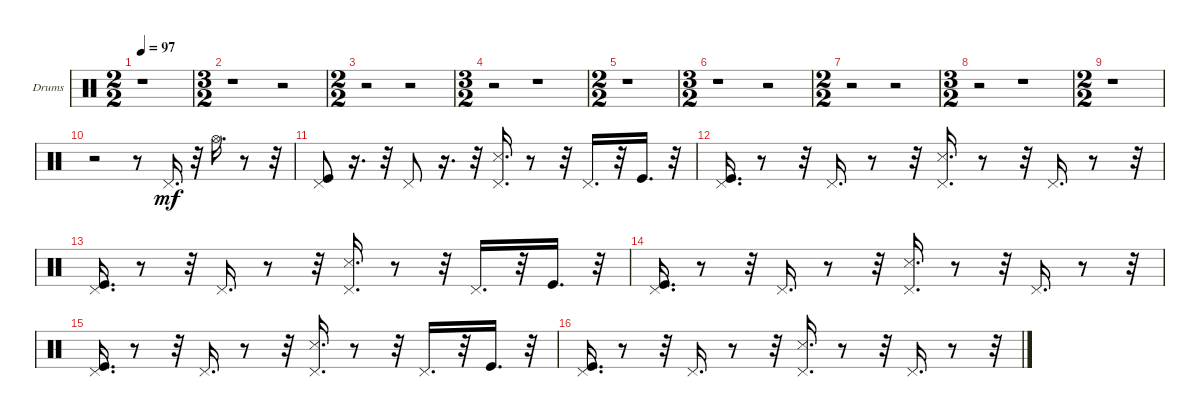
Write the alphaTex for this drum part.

\bracketExtendMode groupsimilarinstruments
\firstSystemTrackNameOrientation horizontal
\otherSystemsTrackNameOrientation horizontal
\track ("Percusion" "Drums") {instrument percussion}
\staff {score}
\articulation defaults
\ts (2 2)
\tempo 97
\clef neutral
\ks c
r.1{dy mf} |
\ts (3 2)
r.1 r.2 |
\ts (2 2)
r.2 r.2 |
\ts (3 2)
r.2 r.1 |
\ts (2 2)
r.1 |
\ts (3 2)
r.1 r.2 |
\ts (2 2)
r.2 r.2 |
\ts (3 2)
r.2 r.1 |
\ts (2 2)
r.1 |
r.2 r.8 "Pedal Hi-Hat (hit)".16{d} r.32 "Hi-Hat (open)".16{d} r.8 r.32 |
("Pedal Hi-Hat (hit)" "Kick (hit)").8 r.16{d} r.32 "Pedal Hi-Hat (hit)".8 r.16{d} r.32 ("Pedal Hi-Hat (hit)" "Snare (side stick) 3").16{d} r.8 r.32 "Pedal Hi-Hat (hit)".16{d} r.32 "Kick (hit)".16{d} r.32 |
("Pedal Hi-Hat (hit)" "Kick (hit)").16{d} r.8 r.32 "Pedal Hi-Hat (hit)".16{d} r.8 r.32 ("Pedal Hi-Hat (hit)" "Snare (side stick) 3").16{d} r.8 r.32 "Pedal Hi-Hat (hit)".16{d} r.8 r.32 |
("Pedal Hi-Hat (hit)" "Kick (hit)").16{d} r.8 r.32 "Pedal Hi-Hat (hit)".16{d} r.8 r.32 ("Pedal Hi-Hat (hit)" "Snare (side stick) 3").16{d} r.8 r.32 "Pedal Hi-Hat (hit)".16{d} r.32 "Kick (hit)".16{d} r.32 |
("Pedal Hi-Hat (hit)" "Kick (hit)").16{d} r.8 r.32 "Pedal Hi-Hat (hit)".16{d} r.8 r.32 ("Pedal Hi-Hat (hit)" "Snare (side stick) 3").16{d} r.8 r.32 "Pedal Hi-Hat (hit)".16{d} r.8 r.32 |
("Pedal Hi-Hat (hit)" "Kick (hit)").16{d} r.8 r.32 "Pedal Hi-Hat (hit)".16{d} r.8 r.32 ("Pedal Hi-Hat (hit)" "Snare (side stick) 3").16{d} r.8 r.32 "Pedal Hi-Hat (hit)".16{d} r.32 "Kick (hit)".16{d} r.32 |
("Pedal Hi-Hat (hit)" "Kick (hit)").16{d} r.8 r.32 "Pedal Hi-Hat (hit)".16{d} r.8 r.32 ("Pedal Hi-Hat (hit)" "Snare (side stick) 3").16{d} r.8 r.32 "Pedal Hi-Hat (hit)".16{d} r.8 r.32
